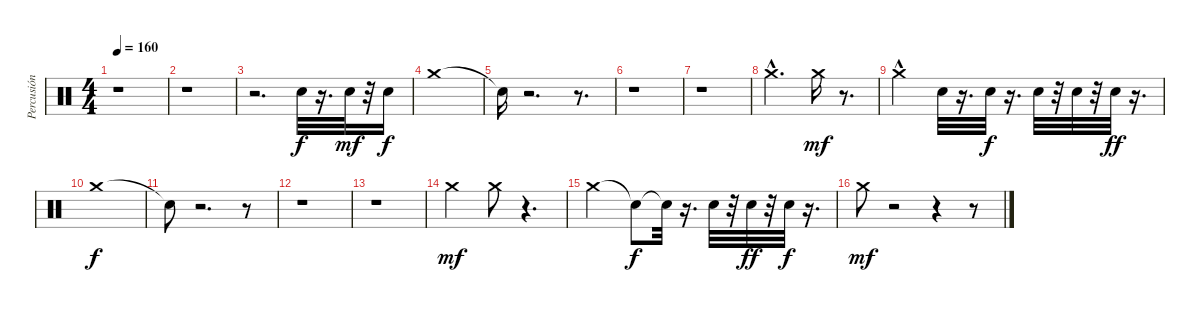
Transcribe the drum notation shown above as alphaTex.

\track ("Percusión" "Percusión") {instrument percussion}
\staff {score}
\articulation defaults
\ts (4 4)
\tempo 160
\clef neutral
\ks c
r.1{dy f} |
r.1 |
r.2{d} "Electric Snare (hit)".32 r.16{d} "Electric Snare (hit)".32{dy mf} r.32 "Electric Snare (hit)".16{dy f} |
"Crash medium (hit)".1 |
"Snare (hit)"{t}.16 r.2{d} r.8{d} |
r.1 |
r.1 |
"Crash medium (hit)"{hac}.2{d} "Crash medium (hit)".16{dy mf} r.8{d} |
"Crash medium (hit)"{hac}.2 "Electric Snare (hit)".32 r.16{d} "Electric Snare (hit)".32{dy f} r.16{d} "Electric Snare (hit)".32 r.32 "Electric Snare (hit)".32 r.32 "Electric Snare (hit)".32{dy ff} r.16{d} |
"Crash medium (hit)".1{dy f} |
"Snare (hit)"{t}.8 r.2{d} r.8 |
r.1 |
r.1 |
"Crash medium (hit)".2{dy mf} "Crash medium (hit)".8 r.4{d} |
"Crash medium (hit)".2 "Snare (hit)"{t}.8{dy f} "Snare (hit)"{t}.32 r.16{d} "Electric Snare (hit)".32 r.32 "Electric Snare (hit)".32{dy ff} r.32 "Electric Snare (hit)".32{dy f} r.16{d} |
"Crash medium (hit)".8{dy mf} r.2 r.4 r.8
